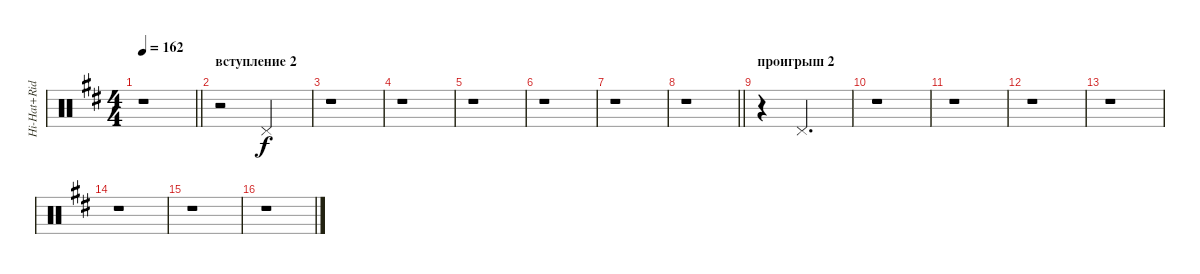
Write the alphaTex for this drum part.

\track ("Hi-Hat+Ride" "Hi-Hat+Rid") {instrument percussion}
\staff {score}
\articulation defaults
\ts (4 4)
\tempo 162
\clef neutral
\barLineRight lightlight
\ks bminor
r.1{dy f} |
\section ("" "вступление 2")
r.2 "Pedal Hi-Hat (hit)".2 |
r.1 |
r.1 |
r.1 |
r.1 |
r.1 |
\barLineRight lightlight
r.1 |
\section ("" "проигрыш 2")
r.4 "Pedal Hi-Hat (hit)".2{d} |
r.1 |
r.1 |
r.1 |
r.1 |
r.1 |
r.1 |
r.1
